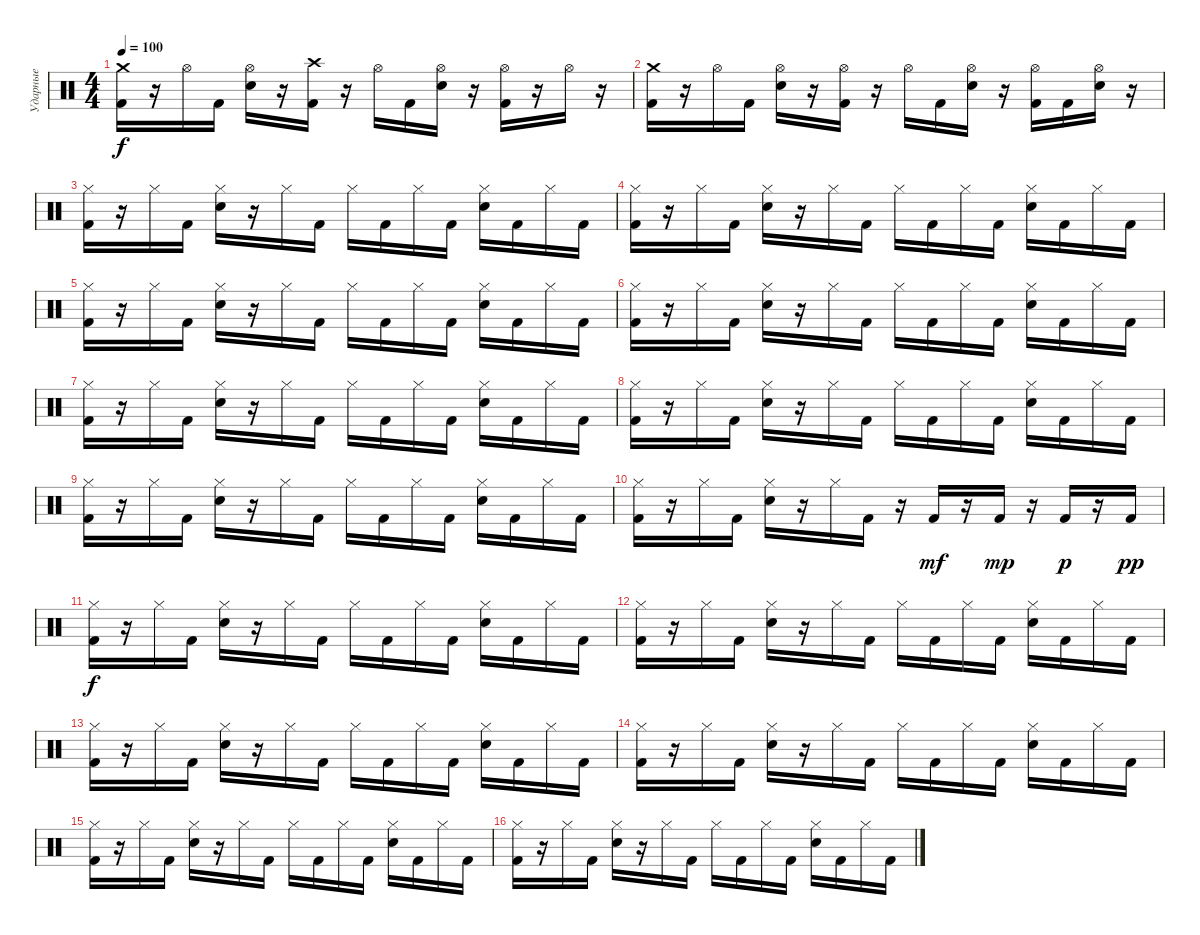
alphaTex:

\track ("Ударные" "Ударные") {instrument percussion}
\staff {score}
\articulation defaults
\ts (4 4)
\tempo 100
\clef neutral
\ks c
("Crash medium (hit)" "Kick (hit) 2").16{dy f} r.16 "Hi-Hat (open)".16 "Kick (hit) 2".16 ("Hi-Hat (open)" "Snare (hit) 2").16 r.16 ("Crash high (hit)" "Kick (hit) 2").16 r.16 "Hi-Hat (open)".16 "Kick (hit) 2".16 ("Hi-Hat (open)" "Snare (hit) 2").16 r.16 ("Hi-Hat (open)" "Kick (hit) 2").16 r.16 "Hi-Hat (open)".16 r.16 |
("Crash medium (hit)" "Kick (hit) 2").16 r.16 "Hi-Hat (open)".16 "Kick (hit) 2".16 ("Hi-Hat (open)" "Snare (hit) 2").16 r.16 ("Hi-Hat (open)" "Kick (hit) 2").16 r.16 "Hi-Hat (open)".16 "Kick (hit) 2".16 ("Hi-Hat (open)" "Snare (hit) 2").16 r.16 ("Hi-Hat (open)" "Kick (hit) 2").16 "Kick (hit) 2".16 ("Hi-Hat (open)" "Snare (hit) 2").16 r.16 |
("Hi-Hat (closed)" "Kick (hit) 2").16{volume 8} r.16 "Hi-Hat (closed)".16 "Kick (hit) 2".16 ("Hi-Hat (closed)" "Snare (hit) 2").16 r.16 "Hi-Hat (closed)".16 "Kick (hit) 2".16 "Hi-Hat (closed)".16 "Kick (hit) 2".16 "Hi-Hat (closed)".16 "Kick (hit) 2".16 ("Hi-Hat (closed)" "Snare (hit) 2").16 "Kick (hit) 2".16 "Hi-Hat (closed)".16 "Kick (hit) 2".16 |
("Hi-Hat (closed)" "Kick (hit) 2").16 r.16 "Hi-Hat (closed)".16 "Kick (hit) 2".16 ("Hi-Hat (closed)" "Snare (hit) 2").16 r.16 "Hi-Hat (closed)".16 "Kick (hit) 2".16 "Hi-Hat (closed)".16 "Kick (hit) 2".16 "Hi-Hat (closed)".16 "Kick (hit) 2".16 ("Hi-Hat (closed)" "Snare (hit) 2").16 "Kick (hit) 2".16 "Hi-Hat (closed)".16 "Kick (hit) 2".16 |
("Hi-Hat (closed)" "Kick (hit) 2").16 r.16 "Hi-Hat (closed)".16 "Kick (hit) 2".16 ("Hi-Hat (closed)" "Snare (hit) 2").16 r.16 "Hi-Hat (closed)".16 "Kick (hit) 2".16 "Hi-Hat (closed)".16 "Kick (hit) 2".16 "Hi-Hat (closed)".16 "Kick (hit) 2".16 ("Hi-Hat (closed)" "Snare (hit) 2").16 "Kick (hit) 2".16 "Hi-Hat (closed)".16 "Kick (hit) 2".16 |
("Hi-Hat (closed)" "Kick (hit) 2").16 r.16 "Hi-Hat (closed)".16 "Kick (hit) 2".16 ("Hi-Hat (closed)" "Snare (hit) 2").16 r.16 "Hi-Hat (closed)".16 "Kick (hit) 2".16 "Hi-Hat (closed)".16 "Kick (hit) 2".16 "Hi-Hat (closed)".16 "Kick (hit) 2".16 ("Hi-Hat (closed)" "Snare (hit) 2").16 "Kick (hit) 2".16 "Hi-Hat (closed)".16 "Kick (hit) 2".16 |
("Hi-Hat (closed)" "Kick (hit) 2").16{volume 11} r.16 "Hi-Hat (closed)".16 "Kick (hit) 2".16 ("Hi-Hat (closed)" "Snare (hit) 2").16 r.16 "Hi-Hat (closed)".16 "Kick (hit) 2".16 "Hi-Hat (closed)".16 "Kick (hit) 2".16 "Hi-Hat (closed)".16 "Kick (hit) 2".16 ("Hi-Hat (closed)" "Snare (hit) 2").16 "Kick (hit) 2".16 "Hi-Hat (closed)".16 "Kick (hit) 2".16 |
("Hi-Hat (closed)" "Kick (hit) 2").16 r.16 "Hi-Hat (closed)".16 "Kick (hit) 2".16 ("Hi-Hat (closed)" "Snare (hit) 2").16 r.16 "Hi-Hat (closed)".16 "Kick (hit) 2".16 "Hi-Hat (closed)".16 "Kick (hit) 2".16 "Hi-Hat (closed)".16 "Kick (hit) 2".16 ("Hi-Hat (closed)" "Snare (hit) 2").16 "Kick (hit) 2".16 "Hi-Hat (closed)".16 "Kick (hit) 2".16 |
("Hi-Hat (closed)" "Kick (hit) 2").16{volume 13} r.16 "Hi-Hat (closed)".16 "Kick (hit) 2".16 ("Hi-Hat (closed)" "Snare (hit) 2").16 r.16 "Hi-Hat (closed)".16 "Kick (hit) 2".16 "Hi-Hat (closed)".16 "Kick (hit) 2".16 "Hi-Hat (closed)".16 "Kick (hit) 2".16 ("Hi-Hat (closed)" "Snare (hit) 2").16 "Kick (hit) 2".16 "Hi-Hat (closed)".16 "Kick (hit) 2".16 |
("Hi-Hat (closed)" "Kick (hit) 2").16 r.16 "Hi-Hat (closed)".16 "Kick (hit) 2".16 ("Hi-Hat (closed)" "Snare (hit) 2").16 r.16 "Hi-Hat (closed)".16 "Kick (hit) 2".16 r.16 "Kick (hit) 2".16{dy mf} r.16 "Kick (hit) 2".16{dy mp} r.16 "Kick (hit) 2".16{dy p} r.16 "Kick (hit) 2".16{dy pp} |
("Hi-Hat (closed)" "Kick (hit) 2").16{dy f} r.16 "Hi-Hat (closed)".16 "Kick (hit) 2".16 ("Hi-Hat (closed)" "Snare (hit) 2").16 r.16 "Hi-Hat (closed)".16 "Kick (hit) 2".16 "Hi-Hat (closed)".16 "Kick (hit) 2".16 "Hi-Hat (closed)".16 "Kick (hit) 2".16 ("Hi-Hat (closed)" "Snare (hit) 2").16 "Kick (hit) 2".16 "Hi-Hat (closed)".16 "Kick (hit) 2".16 |
("Hi-Hat (closed)" "Kick (hit) 2").16 r.16 "Hi-Hat (closed)".16 "Kick (hit) 2".16 ("Hi-Hat (closed)" "Snare (hit) 2").16 r.16 "Hi-Hat (closed)".16 "Kick (hit) 2".16 "Hi-Hat (closed)".16 "Kick (hit) 2".16 "Hi-Hat (closed)".16 "Kick (hit) 2".16 ("Hi-Hat (closed)" "Snare (hit) 2").16 "Kick (hit) 2".16 "Hi-Hat (closed)".16 "Kick (hit) 2".16 |
("Hi-Hat (closed)" "Kick (hit) 2").16 r.16 "Hi-Hat (closed)".16 "Kick (hit) 2".16 ("Hi-Hat (closed)" "Snare (hit) 2").16 r.16 "Hi-Hat (closed)".16 "Kick (hit) 2".16 "Hi-Hat (closed)".16 "Kick (hit) 2".16 "Hi-Hat (closed)".16 "Kick (hit) 2".16 ("Hi-Hat (closed)" "Snare (hit) 2").16 "Kick (hit) 2".16 "Hi-Hat (closed)".16 "Kick (hit) 2".16 |
("Hi-Hat (closed)" "Kick (hit) 2").16 r.16 "Hi-Hat (closed)".16 "Kick (hit) 2".16 ("Hi-Hat (closed)" "Snare (hit) 2").16 r.16 "Hi-Hat (closed)".16 "Kick (hit) 2".16 "Hi-Hat (closed)".16 "Kick (hit) 2".16 "Hi-Hat (closed)".16 "Kick (hit) 2".16 ("Hi-Hat (closed)" "Snare (hit) 2").16 "Kick (hit) 2".16 "Hi-Hat (closed)".16 "Kick (hit) 2".16 |
("Hi-Hat (closed)" "Kick (hit) 2").16 r.16 "Hi-Hat (closed)".16 "Kick (hit) 2".16 ("Hi-Hat (closed)" "Snare (hit) 2").16 r.16 "Hi-Hat (closed)".16 "Kick (hit) 2".16 "Hi-Hat (closed)".16 "Kick (hit) 2".16 "Hi-Hat (closed)".16 "Kick (hit) 2".16 ("Hi-Hat (closed)" "Snare (hit) 2").16 "Kick (hit) 2".16 "Hi-Hat (closed)".16 "Kick (hit) 2".16 |
("Hi-Hat (closed)" "Kick (hit) 2").16 r.16 "Hi-Hat (closed)".16 "Kick (hit) 2".16 ("Hi-Hat (closed)" "Snare (hit) 2").16 r.16 "Hi-Hat (closed)".16 "Kick (hit) 2".16 "Hi-Hat (closed)".16 "Kick (hit) 2".16 "Hi-Hat (closed)".16 "Kick (hit) 2".16 ("Hi-Hat (closed)" "Snare (hit) 2").16 "Kick (hit) 2".16 "Hi-Hat (closed)".16 "Kick (hit) 2".16
